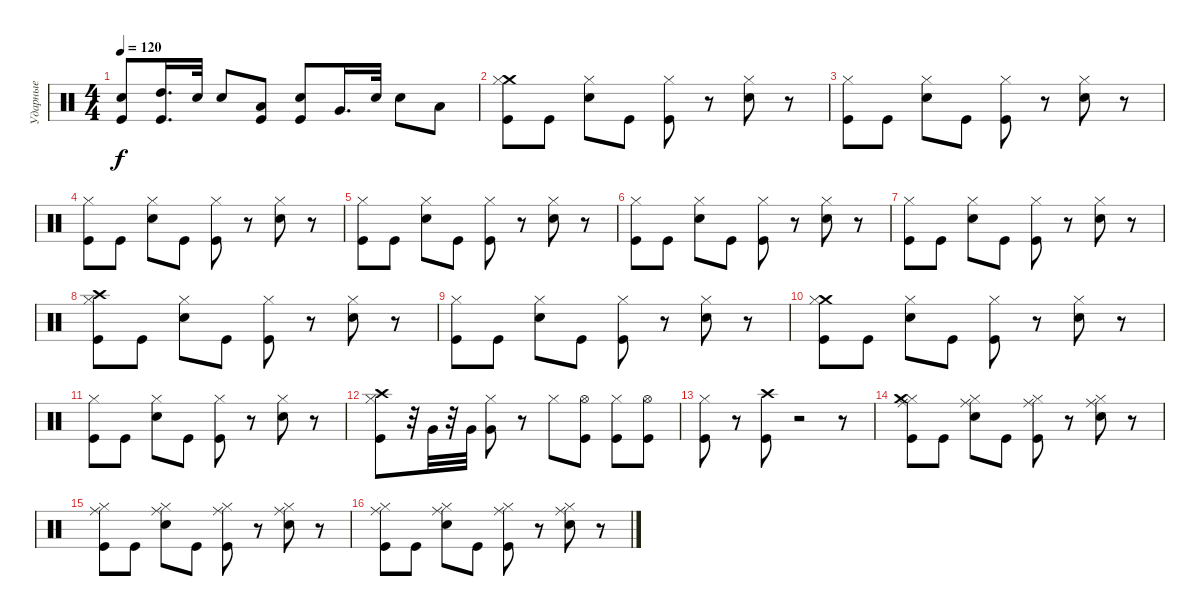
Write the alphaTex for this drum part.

\track ("Ударные" "Ударные") {instrument percussion}
\staff {score}
\articulation defaults
\ts (4 4)
\tempo 120
\clef neutral
\ks c
("Snare (hit) 2" "Kick (hit)").8{dy f} ("High Tom (hit)" "Kick (hit)").16{d} "Snare (hit) 2".32 "Snare (hit) 2".8 ("Low Tom (hit)" "Kick (hit)").8 ("Snare (hit) 2" "Kick (hit)").8 "Very Low Tom (hit)".16{d} "Snare (hit) 2".32 "Snare (hit) 2".8 "Low Floor Tom (hit)".8 |
("Crash medium (hit)" "Hi-Hat (closed)" "Kick (hit)").8 "Kick (hit)".8 ("Hi-Hat (closed)" "Snare (hit) 2").8 "Kick (hit)".8 ("Hi-Hat (closed)" "Kick (hit)").8 r.8 ("Hi-Hat (closed)" "Snare (hit) 2").8 r.8 |
("Hi-Hat (closed)" "Kick (hit)").8 "Kick (hit)".8 ("Hi-Hat (closed)" "Snare (hit) 2").8 "Kick (hit)".8 ("Hi-Hat (closed)" "Kick (hit)").8 r.8 ("Hi-Hat (closed)" "Snare (hit) 2").8 r.8 |
("Hi-Hat (closed)" "Kick (hit)").8 "Kick (hit)".8 ("Hi-Hat (closed)" "Snare (hit) 2").8 "Kick (hit)".8 ("Hi-Hat (closed)" "Kick (hit)").8 r.8 ("Hi-Hat (closed)" "Snare (hit) 2").8 r.8 |
("Hi-Hat (closed)" "Kick (hit)").8 "Kick (hit)".8 ("Hi-Hat (closed)" "Snare (hit) 2").8 "Kick (hit)".8 ("Hi-Hat (closed)" "Kick (hit)").8 r.8 ("Hi-Hat (closed)" "Snare (hit) 2").8 r.8 |
("Hi-Hat (closed)" "Kick (hit)").8 "Kick (hit)".8 ("Hi-Hat (closed)" "Snare (hit) 2").8 "Kick (hit)".8 ("Hi-Hat (closed)" "Kick (hit)").8 r.8 ("Hi-Hat (closed)" "Snare (hit) 2").8 r.8 |
("Hi-Hat (closed)" "Kick (hit)").8 "Kick (hit)".8 ("Hi-Hat (closed)" "Snare (hit) 2").8 "Kick (hit)".8 ("Hi-Hat (closed)" "Kick (hit)").8 r.8 ("Hi-Hat (closed)" "Snare (hit) 2").8 r.8 |
("Crash high (hit)" "Hi-Hat (closed)" "Kick (hit)").8 "Kick (hit)".8 ("Hi-Hat (closed)" "Snare (hit) 2").8 "Kick (hit)".8 ("Hi-Hat (closed)" "Kick (hit)").8 r.8 ("Hi-Hat (closed)" "Snare (hit) 2").8 r.8 |
("Hi-Hat (closed)" "Kick (hit)").8 "Kick (hit)".8 ("Hi-Hat (closed)" "Snare (hit) 2").8 "Kick (hit)".8 ("Hi-Hat (closed)" "Kick (hit)").8 r.8 ("Hi-Hat (closed)" "Snare (hit) 2").8 r.8 |
("Crash medium (hit)" "Hi-Hat (closed)" "Kick (hit)").8 "Kick (hit)".8 ("Hi-Hat (closed)" "Snare (hit) 2").8 "Kick (hit)".8 ("Hi-Hat (closed)" "Kick (hit)").8 r.8 ("Hi-Hat (closed)" "Snare (hit) 2").8 r.8 |
("Hi-Hat (closed)" "Kick (hit)").8 "Kick (hit)".8 ("Hi-Hat (closed)" "Snare (hit) 2").8 "Kick (hit)".8 ("Hi-Hat (closed)" "Kick (hit)").8 r.8 ("Hi-Hat (closed)" "Snare (hit) 2").8 r.8 |
("Crash high (hit)" "Hi-Hat (closed)" "Kick (hit)").8 r.32 "Very Low Tom (hit)".32 r.32 "Very Low Tom (hit)".32 ("Very Low Tom (hit)" "Hi-Hat (closed)").8 r.8 "Hi-Hat (closed)".8 ("Kick (hit)" "Hi-Hat (open)").8 ("Hi-Hat (closed)" "Kick (hit)").8 ("Hi-Hat (open)" "Kick (hit)").8 |
("Kick (hit)" "Hi-Hat (closed)").8 r.8 ("Kick (hit)" "Crash high (hit)").8 r.2 r.8 |
("Hi-Hat (closed)" "Ride (middle)" "Crash medium (hit)" "Kick (hit)").8 "Kick (hit)".8 ("Hi-Hat (closed)" "Ride (middle)" "Snare (hit) 2").8 "Kick (hit)".8 ("Hi-Hat (closed)" "Ride (middle)" "Kick (hit)").8 r.8 ("Hi-Hat (closed)" "Ride (middle)" "Snare (hit) 2").8 r.8 |
("Hi-Hat (closed)" "Ride (middle)" "Kick (hit)").8 "Kick (hit)".8 ("Hi-Hat (closed)" "Ride (middle)" "Snare (hit) 2").8 "Kick (hit)".8 ("Hi-Hat (closed)" "Ride (middle)" "Kick (hit)").8 r.8 ("Hi-Hat (closed)" "Ride (middle)" "Snare (hit) 2").8 r.8 |
("Hi-Hat (closed)" "Ride (middle)" "Kick (hit)").8 "Kick (hit)".8 ("Hi-Hat (closed)" "Ride (middle)" "Snare (hit) 2").8 "Kick (hit)".8 ("Hi-Hat (closed)" "Ride (middle)" "Kick (hit)").8 r.8 ("Hi-Hat (closed)" "Ride (middle)" "Snare (hit) 2").8 r.8
